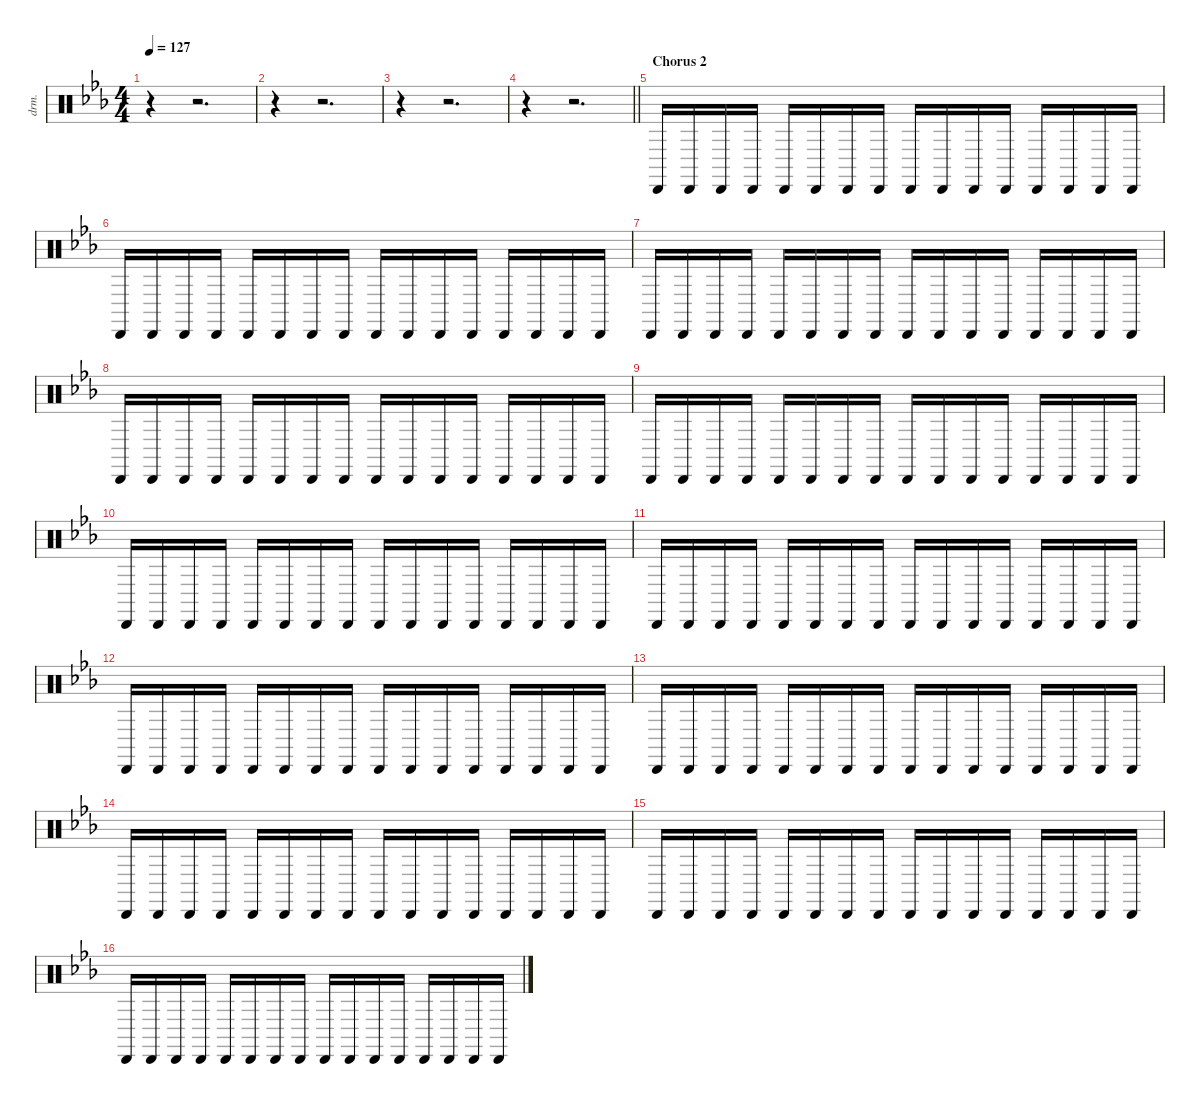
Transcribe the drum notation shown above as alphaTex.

\defaultSystemsLayout 4
\hideDynamics
\bracketExtendMode nobrackets
\otherSystemsTrackNameOrientation horizontal
\track ("Maracas" "drm.") {instrument percussion}
\staff {score}
\articulation defaults
\ts (4 4)
\tempo 127
\clef neutral
\ks eb
r.4{dy p} r.2{d} |
r.4 r.2{d} |
r.4 r.2{d} |
\barLineRight lightlight
r.4 r.2{d} |
\section ("" "Chorus 2")
"Cabasa (hit)"{acc forcenatural}.16{dy mf} "Cabasa (hit)"{acc forcenatural}.16{dy p} "Cabasa (hit)"{acc forcenatural}.16 "Cabasa (hit)"{acc forcenatural}.16 "Cabasa (hit)"{acc forcenatural}.16{dy mf} "Cabasa (hit)"{acc forcenatural}.16{dy p} "Cabasa (hit)"{acc forcenatural}.16 "Cabasa (hit)"{acc forcenatural}.16 "Cabasa (hit)"{acc forcenatural}.16{dy mf} "Cabasa (hit)"{acc forcenatural}.16{dy p} "Cabasa (hit)"{acc forcenatural}.16 "Cabasa (hit)"{acc forcenatural}.16 "Cabasa (hit)"{acc forcenatural}.16{dy mf} "Cabasa (hit)"{acc forcenatural}.16{dy p} "Cabasa (hit)"{acc forcenatural}.16 "Cabasa (hit)"{acc forcenatural}.16 |
"Cabasa (hit)"{acc forcenatural}.16{dy mf} "Cabasa (hit)"{acc forcenatural}.16{dy p} "Cabasa (hit)"{acc forcenatural}.16 "Cabasa (hit)"{acc forcenatural}.16 "Cabasa (hit)"{acc forcenatural}.16{dy mf} "Cabasa (hit)"{acc forcenatural}.16{dy p} "Cabasa (hit)"{acc forcenatural}.16 "Cabasa (hit)"{acc forcenatural}.16 "Cabasa (hit)"{acc forcenatural}.16{dy mf} "Cabasa (hit)"{acc forcenatural}.16{dy p} "Cabasa (hit)"{acc forcenatural}.16 "Cabasa (hit)"{acc forcenatural}.16 "Cabasa (hit)"{acc forcenatural}.16{dy mf} "Cabasa (hit)"{acc forcenatural}.16{dy p} "Cabasa (hit)"{acc forcenatural}.16 "Cabasa (hit)"{acc forcenatural}.16 |
"Cabasa (hit)"{acc forcenatural}.16{dy mf} "Cabasa (hit)"{acc forcenatural}.16{dy p} "Cabasa (hit)"{acc forcenatural}.16 "Cabasa (hit)"{acc forcenatural}.16 "Cabasa (hit)"{acc forcenatural}.16{dy mf} "Cabasa (hit)"{acc forcenatural}.16{dy p} "Cabasa (hit)"{acc forcenatural}.16 "Cabasa (hit)"{acc forcenatural}.16 "Cabasa (hit)"{acc forcenatural}.16{dy mf} "Cabasa (hit)"{acc forcenatural}.16{dy p} "Cabasa (hit)"{acc forcenatural}.16 "Cabasa (hit)"{acc forcenatural}.16 "Cabasa (hit)"{acc forcenatural}.16{dy mf} "Cabasa (hit)"{acc forcenatural}.16{dy p} "Cabasa (hit)"{acc forcenatural}.16 "Cabasa (hit)"{acc forcenatural}.16 |
"Cabasa (hit)"{acc forcenatural}.16{dy mf} "Cabasa (hit)"{acc forcenatural}.16{dy p} "Cabasa (hit)"{acc forcenatural}.16 "Cabasa (hit)"{acc forcenatural}.16 "Cabasa (hit)"{acc forcenatural}.16{dy mf} "Cabasa (hit)"{acc forcenatural}.16{dy p} "Cabasa (hit)"{acc forcenatural}.16 "Cabasa (hit)"{acc forcenatural}.16 "Cabasa (hit)"{acc forcenatural}.16{dy mf} "Cabasa (hit)"{acc forcenatural}.16{dy p} "Cabasa (hit)"{acc forcenatural}.16 "Cabasa (hit)"{acc forcenatural}.16 "Cabasa (hit)"{acc forcenatural}.16{dy mf} "Cabasa (hit)"{acc forcenatural}.16{dy p} "Cabasa (hit)"{acc forcenatural}.16 "Cabasa (hit)"{acc forcenatural}.16 |
"Cabasa (hit)"{acc forcenatural}.16{dy mf} "Cabasa (hit)"{acc forcenatural}.16{dy p} "Cabasa (hit)"{acc forcenatural}.16 "Cabasa (hit)"{acc forcenatural}.16 "Cabasa (hit)"{acc forcenatural}.16{dy mf} "Cabasa (hit)"{acc forcenatural}.16{dy p} "Cabasa (hit)"{acc forcenatural}.16 "Cabasa (hit)"{acc forcenatural}.16 "Cabasa (hit)"{acc forcenatural}.16{dy mf} "Cabasa (hit)"{acc forcenatural}.16{dy p} "Cabasa (hit)"{acc forcenatural}.16 "Cabasa (hit)"{acc forcenatural}.16 "Cabasa (hit)"{acc forcenatural}.16{dy mf} "Cabasa (hit)"{acc forcenatural}.16{dy p} "Cabasa (hit)"{acc forcenatural}.16 "Cabasa (hit)"{acc forcenatural}.16 |
"Cabasa (hit)"{acc forcenatural}.16{dy mf} "Cabasa (hit)"{acc forcenatural}.16{dy p} "Cabasa (hit)"{acc forcenatural}.16 "Cabasa (hit)"{acc forcenatural}.16 "Cabasa (hit)"{acc forcenatural}.16{dy mf} "Cabasa (hit)"{acc forcenatural}.16{dy p} "Cabasa (hit)"{acc forcenatural}.16 "Cabasa (hit)"{acc forcenatural}.16 "Cabasa (hit)"{acc forcenatural}.16{dy mf} "Cabasa (hit)"{acc forcenatural}.16{dy p} "Cabasa (hit)"{acc forcenatural}.16 "Cabasa (hit)"{acc forcenatural}.16 "Cabasa (hit)"{acc forcenatural}.16{dy mf} "Cabasa (hit)"{acc forcenatural}.16{dy p} "Cabasa (hit)"{acc forcenatural}.16 "Cabasa (hit)"{acc forcenatural}.16 |
"Cabasa (hit)"{acc forcenatural}.16{dy mf} "Cabasa (hit)"{acc forcenatural}.16{dy p} "Cabasa (hit)"{acc forcenatural}.16 "Cabasa (hit)"{acc forcenatural}.16 "Cabasa (hit)"{acc forcenatural}.16{dy mf} "Cabasa (hit)"{acc forcenatural}.16{dy p} "Cabasa (hit)"{acc forcenatural}.16 "Cabasa (hit)"{acc forcenatural}.16 "Cabasa (hit)"{acc forcenatural}.16{dy mf} "Cabasa (hit)"{acc forcenatural}.16{dy p} "Cabasa (hit)"{acc forcenatural}.16 "Cabasa (hit)"{acc forcenatural}.16 "Cabasa (hit)"{acc forcenatural}.16{dy mf} "Cabasa (hit)"{acc forcenatural}.16{dy p} "Cabasa (hit)"{acc forcenatural}.16 "Cabasa (hit)"{acc forcenatural}.16 |
"Cabasa (hit)"{acc forcenatural}.16{dy mf} "Cabasa (hit)"{acc forcenatural}.16{dy p} "Cabasa (hit)"{acc forcenatural}.16 "Cabasa (hit)"{acc forcenatural}.16 "Cabasa (hit)"{acc forcenatural}.16{dy mf} "Cabasa (hit)"{acc forcenatural}.16{dy p} "Cabasa (hit)"{acc forcenatural}.16 "Cabasa (hit)"{acc forcenatural}.16 "Cabasa (hit)"{acc forcenatural}.16{dy mf} "Cabasa (hit)"{acc forcenatural}.16{dy p} "Cabasa (hit)"{acc forcenatural}.16 "Cabasa (hit)"{acc forcenatural}.16 "Cabasa (hit)"{acc forcenatural}.16{dy mf} "Cabasa (hit)"{acc forcenatural}.16{dy p} "Cabasa (hit)"{acc forcenatural}.16 "Cabasa (hit)"{acc forcenatural}.16 |
"Cabasa (hit)"{acc forcenatural}.16{dy mf} "Cabasa (hit)"{acc forcenatural}.16{dy p} "Cabasa (hit)"{acc forcenatural}.16 "Cabasa (hit)"{acc forcenatural}.16 "Cabasa (hit)"{acc forcenatural}.16{dy mf} "Cabasa (hit)"{acc forcenatural}.16{dy p} "Cabasa (hit)"{acc forcenatural}.16 "Cabasa (hit)"{acc forcenatural}.16 "Cabasa (hit)"{acc forcenatural}.16{dy mf} "Cabasa (hit)"{acc forcenatural}.16{dy p} "Cabasa (hit)"{acc forcenatural}.16 "Cabasa (hit)"{acc forcenatural}.16 "Cabasa (hit)"{acc forcenatural}.16{dy mf} "Cabasa (hit)"{acc forcenatural}.16{dy p} "Cabasa (hit)"{acc forcenatural}.16 "Cabasa (hit)"{acc forcenatural}.16 |
"Cabasa (hit)"{acc forcenatural}.16{dy mf} "Cabasa (hit)"{acc forcenatural}.16{dy p} "Cabasa (hit)"{acc forcenatural}.16 "Cabasa (hit)"{acc forcenatural}.16 "Cabasa (hit)"{acc forcenatural}.16{dy mf} "Cabasa (hit)"{acc forcenatural}.16{dy p} "Cabasa (hit)"{acc forcenatural}.16 "Cabasa (hit)"{acc forcenatural}.16 "Cabasa (hit)"{acc forcenatural}.16{dy mf} "Cabasa (hit)"{acc forcenatural}.16{dy p} "Cabasa (hit)"{acc forcenatural}.16 "Cabasa (hit)"{acc forcenatural}.16 "Cabasa (hit)"{acc forcenatural}.16{dy mf} "Cabasa (hit)"{acc forcenatural}.16{dy p} "Cabasa (hit)"{acc forcenatural}.16 "Cabasa (hit)"{acc forcenatural}.16 |
"Cabasa (hit)"{acc forcenatural}.16{dy mf} "Cabasa (hit)"{acc forcenatural}.16{dy p} "Cabasa (hit)"{acc forcenatural}.16 "Cabasa (hit)"{acc forcenatural}.16 "Cabasa (hit)"{acc forcenatural}.16{dy mf} "Cabasa (hit)"{acc forcenatural}.16{dy p} "Cabasa (hit)"{acc forcenatural}.16 "Cabasa (hit)"{acc forcenatural}.16 "Cabasa (hit)"{acc forcenatural}.16{dy mf} "Cabasa (hit)"{acc forcenatural}.16{dy p} "Cabasa (hit)"{acc forcenatural}.16 "Cabasa (hit)"{acc forcenatural}.16 "Cabasa (hit)"{acc forcenatural}.16{dy mf} "Cabasa (hit)"{acc forcenatural}.16{dy p} "Cabasa (hit)"{acc forcenatural}.16 "Cabasa (hit)"{acc forcenatural}.16 |
"Cabasa (hit)"{acc forcenatural}.16{dy mf} "Cabasa (hit)"{acc forcenatural}.16{dy p} "Cabasa (hit)"{acc forcenatural}.16 "Cabasa (hit)"{acc forcenatural}.16 "Cabasa (hit)"{acc forcenatural}.16{dy mf} "Cabasa (hit)"{acc forcenatural}.16{dy p} "Cabasa (hit)"{acc forcenatural}.16 "Cabasa (hit)"{acc forcenatural}.16 "Cabasa (hit)"{acc forcenatural}.16{dy mf} "Cabasa (hit)"{acc forcenatural}.16{dy p} "Cabasa (hit)"{acc forcenatural}.16 "Cabasa (hit)"{acc forcenatural}.16 "Cabasa (hit)"{acc forcenatural}.16{dy mf} "Cabasa (hit)"{acc forcenatural}.16{dy p} "Cabasa (hit)"{acc forcenatural}.16 "Cabasa (hit)"{acc forcenatural}.16
